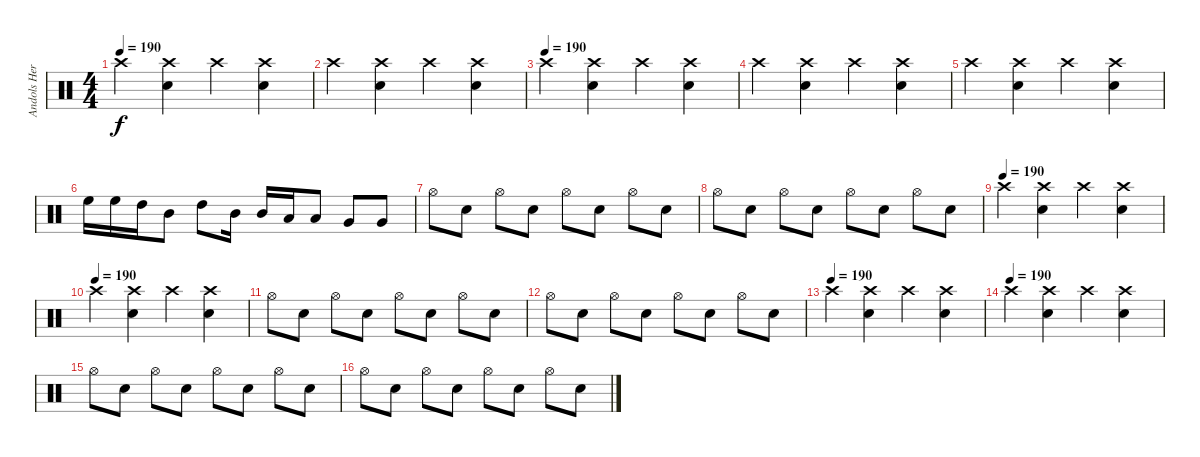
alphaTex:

\track ("Andols Herrick" "Andols Her") {instrument percussion}
\staff {score}
\articulation defaults
\ts (4 4)
\tempo 190
\clef neutral
\ks c "Crash high (hit)".4{dy f}
("Crash high (hit)" "Electric Snare (hit)").4 "Crash high (hit)".4 ("Crash high (hit)" "Electric Snare (hit)").4 |
"Crash high (hit)".4 ("Crash high (hit)" "Electric Snare (hit)").4 "Crash high (hit)".4 ("Crash high (hit)" "Electric Snare (hit)").4 |
\tempo (190)
"Crash high (hit)".4 ("Crash high (hit)" "Electric Snare (hit)").4 "Crash high (hit)".4 ("Crash high (hit)" "Electric Snare (hit)").4 |
"Crash high (hit)".4 ("Crash high (hit)" "Electric Snare (hit)").4 "Crash high (hit)".4 ("Crash high (hit)" "Electric Snare (hit)").4 |
"Crash high (hit)".4 ("Crash high (hit)" "Electric Snare (hit)").4 "Crash high (hit)".4 ("Crash high (hit)" "Electric Snare (hit)").4 |
"High Floor Tom (hit)".16 "High Floor Tom (hit)".16 "High Tom (hit)".16 "Mid Tom (hit)".8 "High Tom (hit)".8 "Mid Tom (hit)".16 "Mid Tom (hit)".16 "Low Tom (hit)".16 "Low Tom (hit)".8 "Very Low Tom (hit)".8 "Very Low Tom (hit)".8 |
"Hi-Hat (open)".8 "Electric Snare (hit)".8 "Hi-Hat (open)".8 "Electric Snare (hit)".8 "Hi-Hat (open)".8 "Electric Snare (hit)".8 "Hi-Hat (open)".8 "Electric Snare (hit)".8 |
"Hi-Hat (open)".8 "Electric Snare (hit)".8 "Hi-Hat (open)".8 "Electric Snare (hit)".8 "Hi-Hat (open)".8 "Electric Snare (hit)".8 "Hi-Hat (open)".8 "Electric Snare (hit)".8 |
\tempo (190)
"Crash high (hit)".4 ("Crash high (hit)" "Electric Snare (hit)").4 "Crash high (hit)".4 ("Crash high (hit)" "Electric Snare (hit)").4 |
\tempo (190)
"Crash high (hit)".4 ("Crash high (hit)" "Electric Snare (hit)").4 "Crash high (hit)".4 ("Crash high (hit)" "Electric Snare (hit)").4 |
"Hi-Hat (open)".8 "Electric Snare (hit)".8 "Hi-Hat (open)".8 "Electric Snare (hit)".8 "Hi-Hat (open)".8 "Electric Snare (hit)".8 "Hi-Hat (open)".8 "Electric Snare (hit)".8 |
"Hi-Hat (open)".8 "Electric Snare (hit)".8 "Hi-Hat (open)".8 "Electric Snare (hit)".8 "Hi-Hat (open)".8 "Electric Snare (hit)".8 "Hi-Hat (open)".8 "Electric Snare (hit)".8 |
\tempo (190)
"Crash high (hit)".4 ("Crash high (hit)" "Electric Snare (hit)").4 "Crash high (hit)".4 ("Crash high (hit)" "Electric Snare (hit)").4 |
\tempo (190)
"Crash high (hit)".4 ("Crash high (hit)" "Electric Snare (hit)").4 "Crash high (hit)".4 ("Crash high (hit)" "Electric Snare (hit)").4 |
"Hi-Hat (open)".8 "Electric Snare (hit)".8 "Hi-Hat (open)".8 "Electric Snare (hit)".8 "Hi-Hat (open)".8 "Electric Snare (hit)".8 "Hi-Hat (open)".8 "Electric Snare (hit)".8 |
"Hi-Hat (open)".8 "Electric Snare (hit)".8 "Hi-Hat (open)".8 "Electric Snare (hit)".8 "Hi-Hat (open)".8 "Electric Snare (hit)".8 "Hi-Hat (open)".8 "Electric Snare (hit)".8
